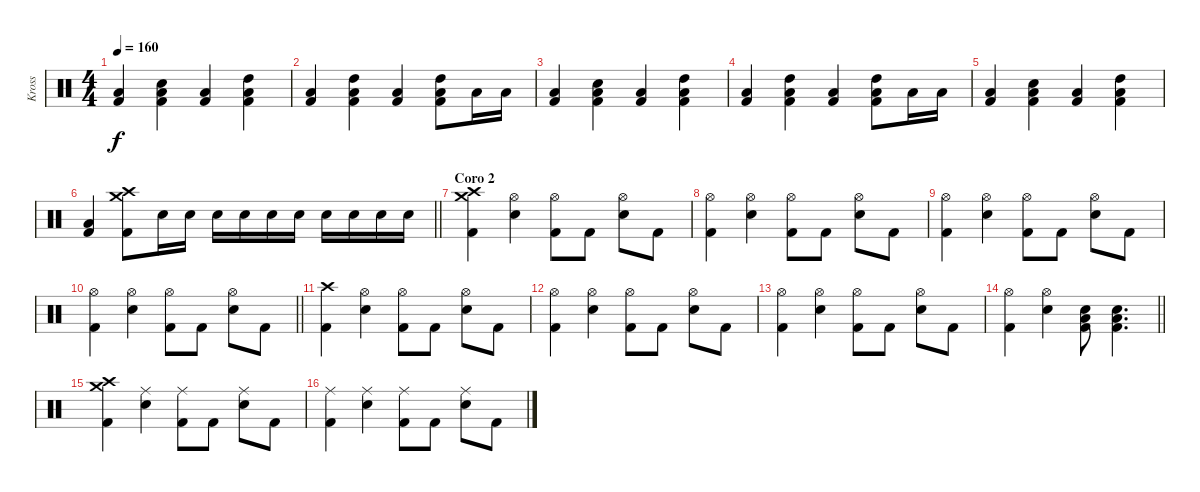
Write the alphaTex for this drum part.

\track ("Kross" "Kross") {instrument percussion}
\staff {score}
\articulation defaults
\ts (4 4)
\tempo 160
\clef neutral
\ks c
("Low Floor Tom (hit)" "Kick (hit) 2").4{dy f} ("Electric Snare (hit)" "Low Floor Tom (hit)" "Kick (hit) 2").4 ("Low Floor Tom (hit)" "Kick (hit) 2").4 ("High Tom (hit)" "Low Floor Tom (hit)" "Kick (hit) 2").4 |
("Low Floor Tom (hit)" "Kick (hit) 2").4 ("High Tom (hit)" "Low Floor Tom (hit)" "Kick (hit) 2").4 ("Low Floor Tom (hit)" "Kick (hit) 2").4 ("High Tom (hit)" "Low Floor Tom (hit)" "Kick (hit) 2").8 "Low Floor Tom (hit)".16 "Low Floor Tom (hit)".16 |
("Low Floor Tom (hit)" "Kick (hit) 2").4 ("Electric Snare (hit)" "Low Floor Tom (hit)" "Kick (hit) 2").4 ("Low Floor Tom (hit)" "Kick (hit) 2").4 ("High Tom (hit)" "Low Floor Tom (hit)" "Kick (hit) 2").4 |
("Low Floor Tom (hit)" "Kick (hit) 2").4 ("High Tom (hit)" "Low Floor Tom (hit)" "Kick (hit) 2").4 ("Low Floor Tom (hit)" "Kick (hit) 2").4 ("High Tom (hit)" "Low Floor Tom (hit)" "Kick (hit) 2").8 "Low Floor Tom (hit)".16 "Low Floor Tom (hit)".16 |
("Low Floor Tom (hit)" "Kick (hit) 2").4 ("Electric Snare (hit)" "Low Floor Tom (hit)" "Kick (hit) 2").4 ("Low Floor Tom (hit)" "Kick (hit) 2").4 ("High Tom (hit)" "Low Floor Tom (hit)" "Kick (hit) 2").4 |
\barLineRight lightlight
("Low Floor Tom (hit)" "Kick (hit) 2").4 ("Crash medium (hit)" "Crash high (hit)" "Kick (hit) 2").8 "Electric Snare (hit)".16 "Electric Snare (hit)".16 "Electric Snare (hit)".16 "Electric Snare (hit)".16 "Electric Snare (hit)".16 "Electric Snare (hit)".16 "Electric Snare (hit)".16 "Electric Snare (hit)".16 "Electric Snare (hit)".16 "Electric Snare (hit)".16 |
\section ("" "Coro 2")
("Crash high (hit)" "Crash medium (hit)" "Kick (hit) 2").4 ("Hi-Hat (open)" "Electric Snare (hit)").4 ("Hi-Hat (open)" "Kick (hit) 2").8 "Kick (hit) 2".8 ("Hi-Hat (open)" "Electric Snare (hit)").8 "Kick (hit) 2".8 |
("Hi-Hat (open)" "Kick (hit) 2").4 ("Hi-Hat (open)" "Electric Snare (hit)").4 ("Hi-Hat (open)" "Kick (hit) 2").8 "Kick (hit) 2".8 ("Hi-Hat (open)" "Electric Snare (hit)").8 "Kick (hit) 2".8 |
("Hi-Hat (open)" "Kick (hit) 2").4 ("Hi-Hat (open)" "Electric Snare (hit)").4 ("Hi-Hat (open)" "Kick (hit) 2").8 "Kick (hit) 2".8 ("Hi-Hat (open)" "Electric Snare (hit)").8 "Kick (hit) 2".8 |
\barLineRight lightlight
("Hi-Hat (open)" "Kick (hit) 2").4 ("Hi-Hat (open)" "Electric Snare (hit)").4 ("Hi-Hat (open)" "Kick (hit) 2").8 "Kick (hit) 2".8 ("Hi-Hat (open)" "Electric Snare (hit)").8 "Kick (hit) 2".8 |
("Crash high (hit)" "Kick (hit) 2").4 ("Hi-Hat (open)" "Electric Snare (hit)").4 ("Hi-Hat (open)" "Kick (hit) 2").8 "Kick (hit) 2".8 ("Hi-Hat (open)" "Electric Snare (hit)").8 "Kick (hit) 2".8 |
("Hi-Hat (open)" "Kick (hit) 2").4 ("Hi-Hat (open)" "Electric Snare (hit)").4 ("Hi-Hat (open)" "Kick (hit) 2").8 "Kick (hit) 2".8 ("Hi-Hat (open)" "Electric Snare (hit)").8 "Kick (hit) 2".8 |
("Hi-Hat (open)" "Kick (hit) 2").4 ("Hi-Hat (open)" "Electric Snare (hit)").4 ("Hi-Hat (open)" "Kick (hit) 2").8 "Kick (hit) 2".8 ("Hi-Hat (open)" "Electric Snare (hit)").8 "Kick (hit) 2".8 |
\barLineRight lightlight
("Hi-Hat (open)" "Kick (hit) 2").4 ("Hi-Hat (open)" "Electric Snare (hit)").4 ("Electric Snare (hit)" "Low Floor Tom (hit)" "Kick (hit) 2").8 ("Electric Snare (hit)" "Low Floor Tom (hit)" "Kick (hit) 2").4{d} |
("Crash high (hit)" "Crash medium (hit)" "Kick (hit) 2").4 ("Ride (middle)" "Electric Snare (hit)").4 ("Ride (middle)" "Kick (hit) 2").8 "Kick (hit) 2".8 ("Ride (middle)" "Electric Snare (hit)").8 "Kick (hit) 2".8 |
("Ride (middle)" "Kick (hit) 2").4 ("Ride (middle)" "Electric Snare (hit)").4 ("Ride (middle)" "Kick (hit) 2").8 "Kick (hit) 2".8 ("Ride (middle)" "Electric Snare (hit)").8 "Kick (hit) 2".8
